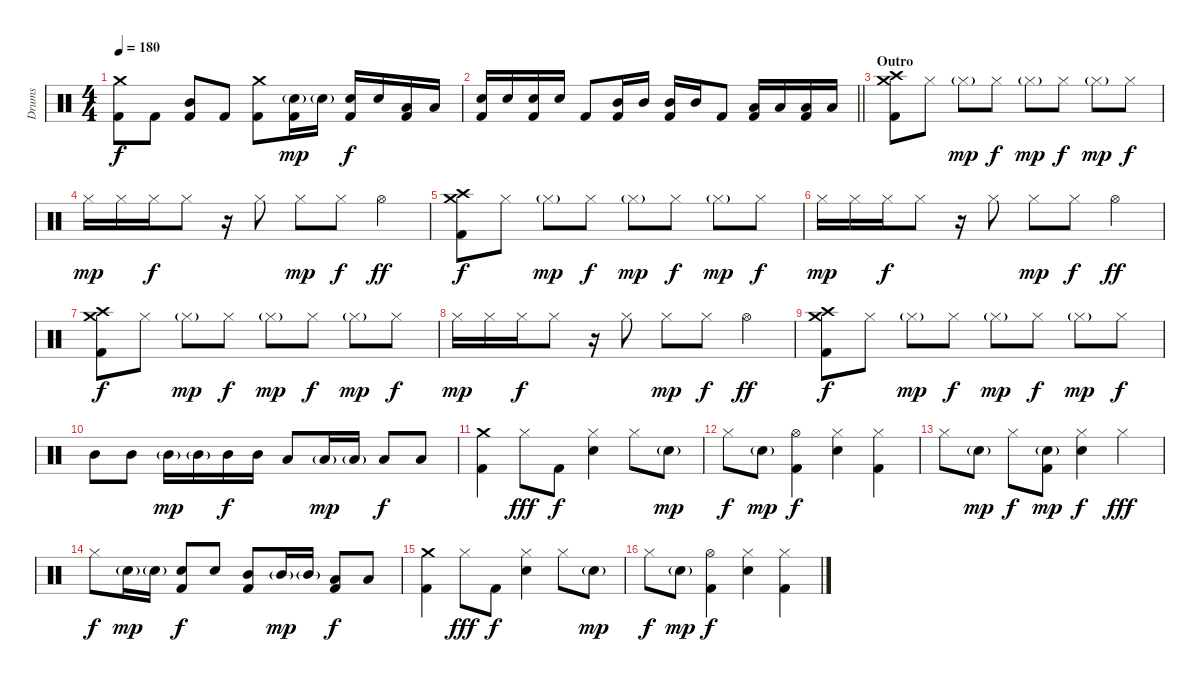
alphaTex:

\track ("Drums" "Drums") {instrument percussion}
\staff {score}
\articulation defaults
\ts (4 4)
\tempo 180
\clef neutral
\ks c
("Crash medium (hit)" "Kick (hit) 2").8{dy f} "Kick (hit) 2".8 ("Mid Tom (hit)" "Kick (hit) 2").8 "Kick (hit) 2".8 ("Crash medium (hit)" "Kick (hit) 2").8 ("Snare (hit) 2"{g} "Kick (hit) 2").16{dy mp} "Snare (hit) 2"{g}.16 ("Snare (hit) 2" "Kick (hit) 2").16{dy f} "Snare (hit) 2".16 ("Low Tom (hit)" "Kick (hit) 2").16 "Low Tom (hit)".16 |
\barLineRight lightlight
("Snare (hit) 2" "Kick (hit) 2").16 "Snare (hit) 2".16 ("Snare (hit) 2" "Kick (hit) 2").16 "Snare (hit) 2".16 "Kick (hit) 2".8 ("Mid Tom (hit)" "Kick (hit) 2").16 "Mid Tom (hit)".16 ("Mid Tom (hit)" "Kick (hit) 2").16 "Mid Tom (hit)".16 "Kick (hit) 2".8 ("Low Tom (hit)" "Kick (hit) 2").16 "Low Tom (hit)".16 ("Low Tom (hit)" "Kick (hit) 2").16 "Low Tom (hit)".16 |
\section ("" "Outro")
("Crash medium (hit)" "Crash high (hit)" "Kick (hit) 2").8 "Hi-Hat (closed)".8 "Hi-Hat (closed)"{g}.8{dy mp} "Hi-Hat (closed)".8{dy f} "Hi-Hat (closed)"{g}.8{dy mp} "Hi-Hat (closed)".8{dy f} "Hi-Hat (closed)"{g}.8{dy mp} "Hi-Hat (closed)".8{dy f} |
"Hi-Hat (closed)".16{dy mp} "Hi-Hat (closed)".16 "Hi-Hat (closed)".16{dy f} "Hi-Hat (closed)".8 r.16 "Hi-Hat (closed)".8 "Hi-Hat (closed)".8{dy mp} "Hi-Hat (closed)".8{dy f} "Hi-Hat (open)".4{dy ff} |
("Crash medium (hit)" "Crash high (hit)" "Kick (hit) 2").8{dy f} "Hi-Hat (closed)".8 "Hi-Hat (closed)"{g}.8{dy mp} "Hi-Hat (closed)".8{dy f} "Hi-Hat (closed)"{g}.8{dy mp} "Hi-Hat (closed)".8{dy f} "Hi-Hat (closed)"{g}.8{dy mp} "Hi-Hat (closed)".8{dy f} |
"Hi-Hat (closed)".16{dy mp} "Hi-Hat (closed)".16 "Hi-Hat (closed)".16{dy f} "Hi-Hat (closed)".8 r.16 "Hi-Hat (closed)".8 "Hi-Hat (closed)".8{dy mp} "Hi-Hat (closed)".8{dy f} "Hi-Hat (open)".4{dy ff} |
("Crash medium (hit)" "Crash high (hit)" "Kick (hit) 2").8{dy f} "Hi-Hat (closed)".8 "Hi-Hat (closed)"{g}.8{dy mp} "Hi-Hat (closed)".8{dy f} "Hi-Hat (closed)"{g}.8{dy mp} "Hi-Hat (closed)".8{dy f} "Hi-Hat (closed)"{g}.8{dy mp} "Hi-Hat (closed)".8{dy f} |
"Hi-Hat (closed)".16{dy mp} "Hi-Hat (closed)".16 "Hi-Hat (closed)".16{dy f} "Hi-Hat (closed)".8 r.16 "Hi-Hat (closed)".8 "Hi-Hat (closed)".8{dy mp} "Hi-Hat (closed)".8{dy f} "Hi-Hat (open)".4{dy ff} |
("Crash medium (hit)" "Crash high (hit)" "Kick (hit) 2").8{dy f} "Hi-Hat (closed)".8 "Hi-Hat (closed)"{g}.8{dy mp} "Hi-Hat (closed)".8{dy f} "Hi-Hat (closed)"{g}.8{dy mp} "Hi-Hat (closed)".8{dy f} "Hi-Hat (closed)"{g}.8{dy mp} "Hi-Hat (closed)".8{dy f} |
"Mid Tom (hit)".8 "Mid Tom (hit)".8 "Mid Tom (hit)"{g}.16{dy mp} "Mid Tom (hit)"{g}.16 "Mid Tom (hit)".16{dy f} "Mid Tom (hit)".16 "Low Tom (hit)".8 "Low Tom (hit)"{g}.16{dy mp} "Low Tom (hit)"{g}.16 "Low Tom (hit)".8{dy f} "Low Tom (hit)".8 |
("Crash medium (hit)" "Kick (hit) 2").4 "Hi-Hat (closed)".8{dy fff} "Kick (hit) 2".8{dy f} ("Hi-Hat (closed)" "Snare (hit) 2").4 "Hi-Hat (closed)".8 "Snare (hit) 2"{g}.8{dy mp} |
"Hi-Hat (closed)".8{dy f} "Snare (hit) 2"{g}.8{dy mp} ("Hi-Hat (open)" "Kick (hit) 2").4{dy f} ("Hi-Hat (closed)" "Snare (hit) 2").4 ("Hi-Hat (closed)" "Kick (hit) 2").4 |
"Hi-Hat (closed)".8 "Snare (hit) 2"{g}.8{dy mp} "Hi-Hat (closed)".8{dy f} ("Snare (hit) 2"{g} "Kick (hit) 2").8{dy mp} ("Hi-Hat (closed)" "Snare (hit) 2").4{dy f} "Hi-Hat (closed)".4{dy fff} |
"Hi-Hat (closed)".8{dy f} "Snare (hit) 2"{g}.16{dy mp} "Snare (hit) 2"{g}.16 ("Snare (hit) 2" "Kick (hit) 2").8{dy f} "Snare (hit) 2".8 ("Mid Tom (hit)" "Kick (hit) 2").8 "Mid Tom (hit)"{g}.16{dy mp} "Mid Tom (hit)"{g}.16 ("Low Tom (hit)" "Kick (hit) 2").8{dy f} "Low Tom (hit)".8 |
("Crash medium (hit)" "Kick (hit) 2").4 "Hi-Hat (closed)".8{dy fff} "Kick (hit) 2".8{dy f} ("Hi-Hat (closed)" "Snare (hit) 2").4 "Hi-Hat (closed)".8 "Snare (hit) 2"{g}.8{dy mp} |
"Hi-Hat (closed)".8{dy f} "Snare (hit) 2"{g}.8{dy mp} ("Hi-Hat (open)" "Kick (hit) 2").4{dy f} ("Hi-Hat (closed)" "Snare (hit) 2").4 ("Hi-Hat (closed)" "Kick (hit) 2").4
